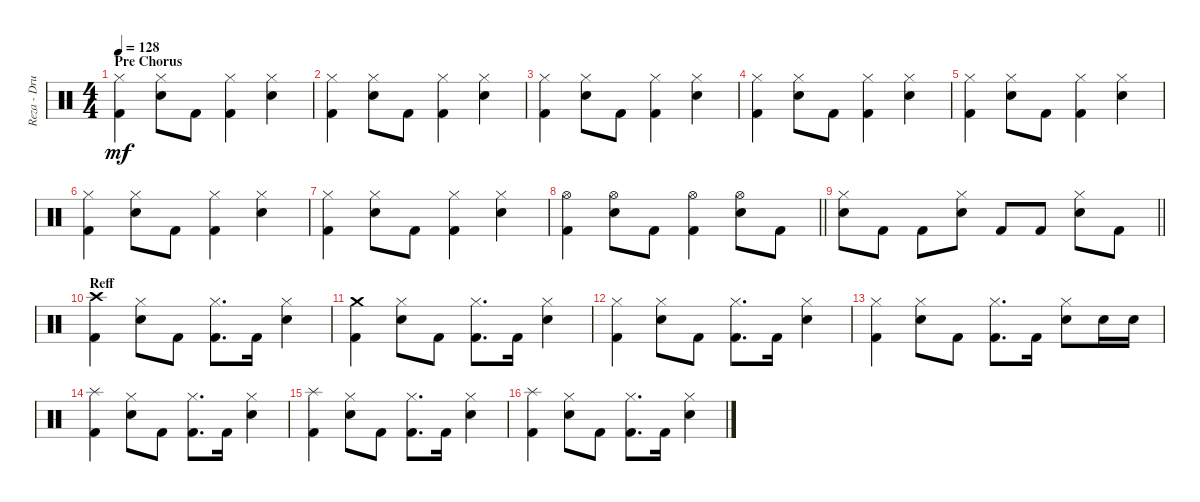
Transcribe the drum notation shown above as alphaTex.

\track ("Reza - Drum" "Reza - Dru") {instrument percussion}
\staff {score}
\articulation defaults
\ts (4 4)
\section ("" "Pre Chorus")
\tempo 128
\clef neutral
\ks c
("Hi-Hat (closed)" "Kick (hit) 2").4{dy mf} ("Hi-Hat (closed)" "Electric Snare (hit)").8 "Kick (hit) 2".8 ("Hi-Hat (closed)" "Kick (hit) 2").4 ("Hi-Hat (closed)" "Electric Snare (hit)").4 |
("Hi-Hat (closed)" "Kick (hit) 2").4 ("Hi-Hat (closed)" "Electric Snare (hit)").8 "Kick (hit) 2".8 ("Hi-Hat (closed)" "Kick (hit) 2").4 ("Hi-Hat (closed)" "Electric Snare (hit)").4 |
("Hi-Hat (closed)" "Kick (hit) 2").4 ("Hi-Hat (closed)" "Electric Snare (hit)").8 "Kick (hit) 2".8 ("Hi-Hat (closed)" "Kick (hit) 2").4 ("Hi-Hat (closed)" "Electric Snare (hit)").4 |
("Hi-Hat (closed)" "Kick (hit) 2").4 ("Hi-Hat (closed)" "Electric Snare (hit)").8 "Kick (hit) 2".8 ("Hi-Hat (closed)" "Kick (hit) 2").4 ("Hi-Hat (closed)" "Electric Snare (hit)").4 |
("Hi-Hat (closed)" "Kick (hit) 2").4 ("Hi-Hat (closed)" "Electric Snare (hit)").8 "Kick (hit) 2".8 ("Hi-Hat (closed)" "Kick (hit) 2").4 ("Hi-Hat (closed)" "Electric Snare (hit)").4 |
("Hi-Hat (closed)" "Kick (hit) 2").4 ("Hi-Hat (closed)" "Electric Snare (hit)").8 "Kick (hit) 2".8 ("Hi-Hat (closed)" "Kick (hit) 2").4 ("Hi-Hat (closed)" "Electric Snare (hit)").4 |
("Hi-Hat (closed)" "Kick (hit) 2").4 ("Hi-Hat (closed)" "Electric Snare (hit)").8 "Kick (hit) 2".8 ("Hi-Hat (closed)" "Kick (hit) 2").4 ("Hi-Hat (closed)" "Electric Snare (hit)").4 |
\barLineRight lightlight
("Hi-Hat (open)" "Kick (hit) 2").4 ("Hi-Hat (open)" "Electric Snare (hit)").8 "Kick (hit) 2".8 ("Hi-Hat (open)" "Kick (hit) 2").4 ("Hi-Hat (open)" "Electric Snare (hit)").8 "Kick (hit) 2".8 |
\barLineRight lightlight
("Hi-Hat (closed)" "Electric Snare (hit)").8 "Kick (hit) 2".8 "Kick (hit) 2".8 ("Hi-Hat (closed)" "Electric Snare (hit)").8 "Kick (hit) 2".8 "Kick (hit) 2".8 ("Hi-Hat (closed)" "Electric Snare (hit)").8 "Kick (hit) 2".8 |
\section ("" "Reff")
("Crash high (hit)" "Kick (hit) 2").4 ("Hi-Hat (closed)" "Electric Snare (hit)").8 "Kick (hit) 2".8 ("Hi-Hat (closed)" "Kick (hit) 2").8{d} "Kick (hit) 2".16 ("Hi-Hat (closed)" "Electric Snare (hit)").4 |
("Crash medium (hit)" "Kick (hit) 2").4 ("Hi-Hat (closed)" "Electric Snare (hit)").8 "Kick (hit) 2".8 ("Hi-Hat (closed)" "Kick (hit) 2").8{d} "Kick (hit) 2".16 ("Hi-Hat (closed)" "Electric Snare (hit)").4 |
("Hi-Hat (closed)" "Kick (hit) 2").4 ("Hi-Hat (closed)" "Electric Snare (hit)").8 "Kick (hit) 2".8 ("Hi-Hat (closed)" "Kick (hit) 2").8{d} "Kick (hit) 2".16 ("Hi-Hat (closed)" "Electric Snare (hit)").4 |
("Hi-Hat (closed)" "Kick (hit) 2").4 ("Hi-Hat (closed)" "Electric Snare (hit)").8 "Kick (hit) 2".8 ("Hi-Hat (closed)" "Kick (hit) 2").8{d} "Kick (hit) 2".16 ("Hi-Hat (closed)" "Electric Snare (hit)").8 "Electric Snare (hit)".16 "Electric Snare (hit)".16 |
("Splash (hit)" "Kick (hit) 2").4 ("Hi-Hat (closed)" "Electric Snare (hit)").8 "Kick (hit) 2".8 ("Hi-Hat (closed)" "Kick (hit) 2").8{d} "Kick (hit) 2".16 ("Hi-Hat (closed)" "Electric Snare (hit)").4 |
("Splash (hit)" "Kick (hit) 2").4 ("Hi-Hat (closed)" "Electric Snare (hit)").8 "Kick (hit) 2".8 ("Hi-Hat (closed)" "Kick (hit) 2").8{d} "Kick (hit) 2".16 ("Hi-Hat (closed)" "Electric Snare (hit)").4 |
("Splash (hit)" "Kick (hit) 2").4 ("Hi-Hat (closed)" "Electric Snare (hit)").8 "Kick (hit) 2".8 ("Hi-Hat (closed)" "Kick (hit) 2").8{d} "Kick (hit) 2".16 ("Hi-Hat (closed)" "Electric Snare (hit)").4
